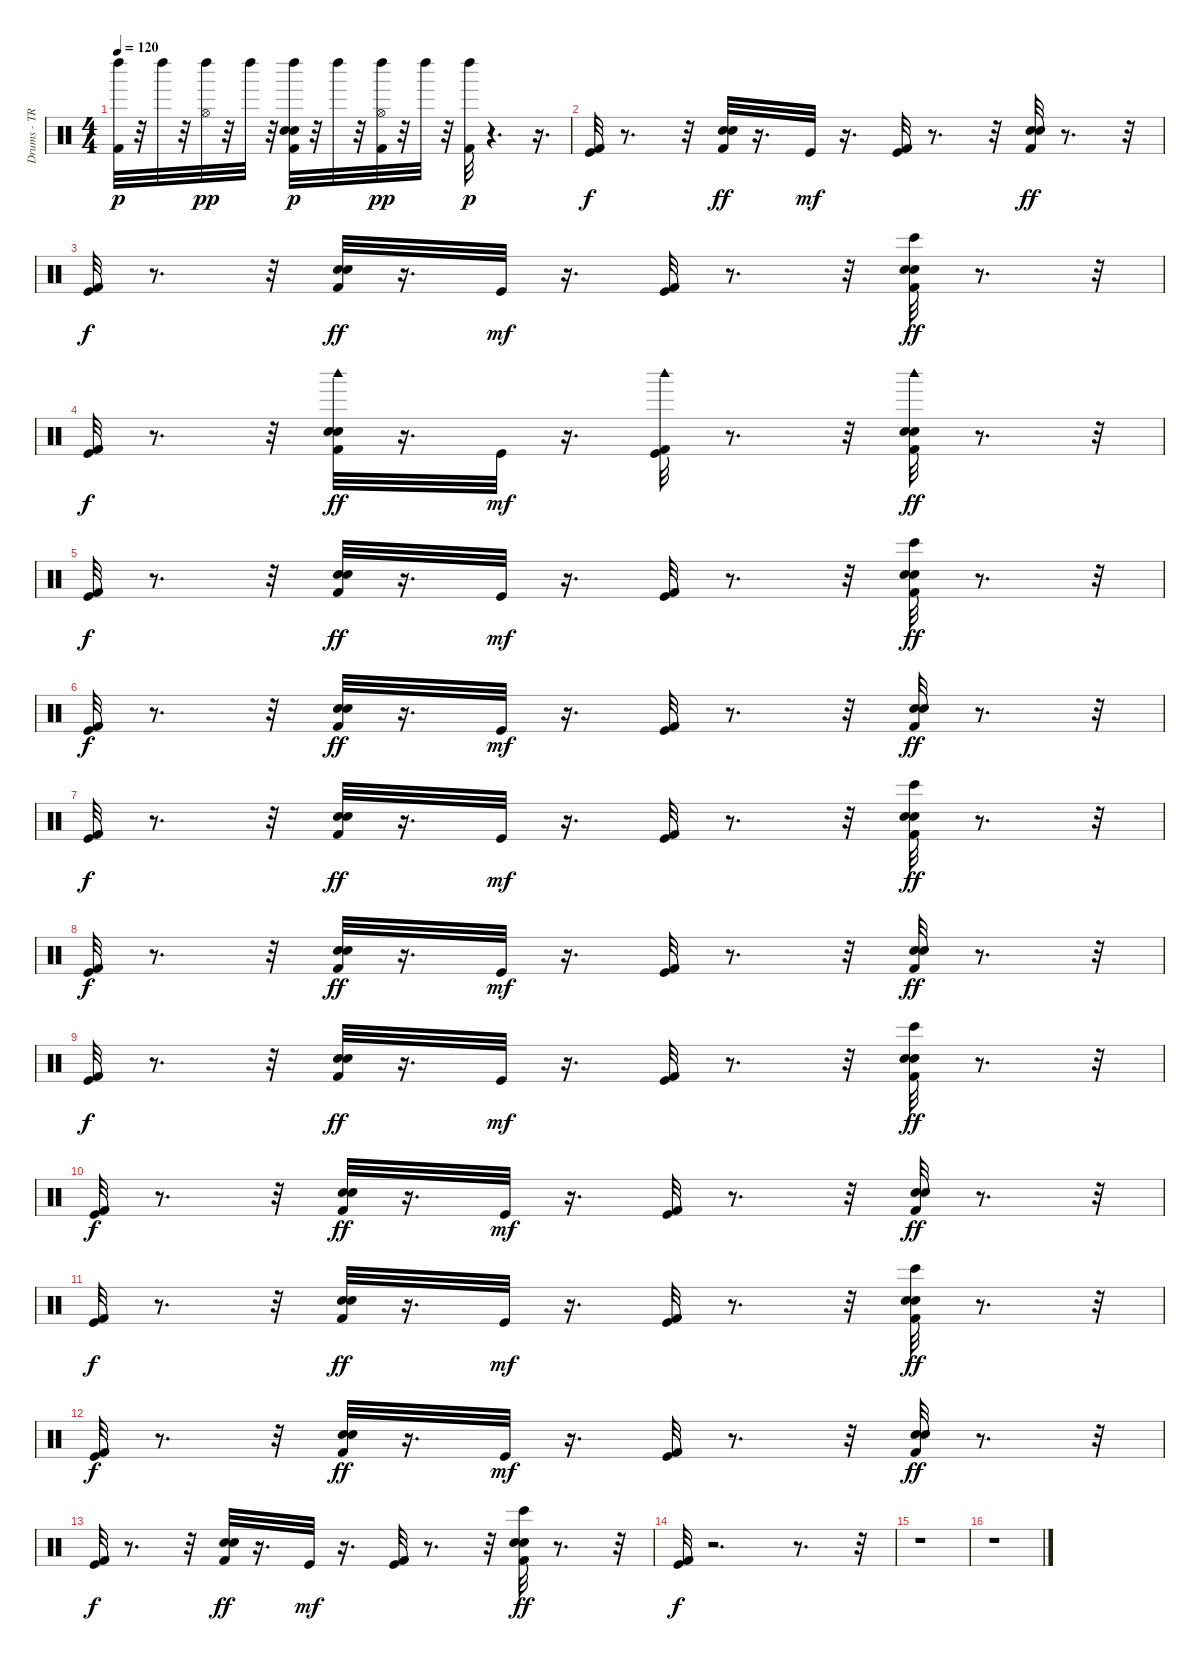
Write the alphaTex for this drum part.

\track ("Drums - TR" "Drums - TR") {instrument percussion}
\staff {score}
\articulation defaults
\ts (4 4)
\tempo 120
\clef neutral
\ks c
("Kick (hit) 2" "Left Maraca (hit)").32{dy p} r.32 "Left Maraca (hit)".32 r.32 ("Hi-Hat (open)" "Left Maraca (hit)").32{dy pp} r.32 "Left Maraca (hit)".32 r.32 ("Kick (hit) 2" "Snare (hit) 2" "Hand Clap (hit)" "Left Maraca (hit)").32{dy p} r.32 "Left Maraca (hit)".32 r.32 ("Kick (hit) 2" "Hi-Hat (open)" "Left Maraca (hit)").32{dy pp} r.32 "Left Maraca (hit)".32 r.32 ("Kick (hit) 2" "Left Maraca (hit)").32{dy p} r.4{d} r.16{d} |
("Kick (hit)" "Kick (hit) 2").32{dy f} r.8{d} r.32 ("Kick (hit) 2" "Snare (hit) 2" "Hand Clap (hit)").32{dy ff} r.16{d} "Kick (hit)".32{dy mf} r.16{d} ("Kick (hit)" "Kick (hit) 2").32 r.8{d} r.32 ("Kick (hit) 2" "Snare (hit) 2" "Hand Clap (hit)").32{dy ff} r.8{d} r.32 |
("Kick (hit)" "Kick (hit) 2").32{dy f} r.8{d} r.32 ("Kick (hit) 2" "Snare (hit) 2" "Hand Clap (hit)").32{dy ff} r.16{d} "Kick (hit)".32{dy mf} r.16{d} ("Kick (hit)" "Kick (hit) 2").32 r.8{d} r.32 ("Kick (hit) 2" "Snare (hit) 2" "Hand Clap (hit)" "Bongo High (hit)").32{dy ff} r.8{d} r.32 |
("Kick (hit)" "Kick (hit) 2").32{dy f} r.8{d} r.32 ("Kick (hit) 2" "Snare (hit) 2" "Hand Clap (hit)" "Woodblock high (hit)").32{dy ff} r.16{d} "Kick (hit)".32{dy mf} r.16{d} ("Kick (hit)" "Kick (hit) 2" "Woodblock high (hit)").32 r.8{d} r.32 ("Kick (hit) 2" "Snare (hit) 2" "Hand Clap (hit)" "Woodblock high (hit)").32{dy ff} r.8{d} r.32 |
("Kick (hit)" "Kick (hit) 2").32{dy f} r.8{d} r.32 ("Kick (hit) 2" "Snare (hit) 2" "Hand Clap (hit)").32{dy ff} r.16{d} "Kick (hit)".32{dy mf} r.16{d} ("Kick (hit)" "Kick (hit) 2").32 r.8{d} r.32 ("Kick (hit) 2" "Snare (hit) 2" "Hand Clap (hit)" "Bongo High (hit)").32{dy ff} r.8{d} r.32 |
("Kick (hit)" "Kick (hit) 2").32{dy f} r.8{d} r.32 ("Kick (hit) 2" "Snare (hit) 2" "Hand Clap (hit)").32{dy ff} r.16{d} "Kick (hit)".32{dy mf} r.16{d} ("Kick (hit)" "Kick (hit) 2").32 r.8{d} r.32 ("Kick (hit) 2" "Snare (hit) 2" "Hand Clap (hit)").32{dy ff} r.8{d} r.32 |
("Kick (hit)" "Kick (hit) 2").32{dy f} r.8{d} r.32 ("Kick (hit) 2" "Snare (hit) 2" "Hand Clap (hit)").32{dy ff} r.16{d} "Kick (hit)".32{dy mf} r.16{d} ("Kick (hit)" "Kick (hit) 2").32 r.8{d} r.32 ("Kick (hit) 2" "Snare (hit) 2" "Hand Clap (hit)" "Bongo High (hit)").32{dy ff} r.8{d} r.32 |
("Kick (hit)" "Kick (hit) 2").32{dy f} r.8{d} r.32 ("Kick (hit) 2" "Snare (hit) 2" "Hand Clap (hit)").32{dy ff} r.16{d} "Kick (hit)".32{dy mf} r.16{d} ("Kick (hit)" "Kick (hit) 2").32 r.8{d} r.32 ("Kick (hit) 2" "Snare (hit) 2" "Hand Clap (hit)").32{dy ff} r.8{d} r.32 |
("Kick (hit)" "Kick (hit) 2").32{dy f} r.8{d} r.32 ("Kick (hit) 2" "Snare (hit) 2" "Hand Clap (hit)").32{dy ff} r.16{d} "Kick (hit)".32{dy mf} r.16{d} ("Kick (hit)" "Kick (hit) 2").32 r.8{d} r.32 ("Kick (hit) 2" "Snare (hit) 2" "Hand Clap (hit)" "Bongo High (hit)").32{dy ff} r.8{d} r.32 |
("Kick (hit)" "Kick (hit) 2").32{dy f} r.8{d} r.32 ("Kick (hit) 2" "Snare (hit) 2" "Hand Clap (hit)").32{dy ff} r.16{d} "Kick (hit)".32{dy mf} r.16{d} ("Kick (hit)" "Kick (hit) 2").32 r.8{d} r.32 ("Kick (hit) 2" "Snare (hit) 2" "Hand Clap (hit)").32{dy ff} r.8{d} r.32 |
("Kick (hit)" "Kick (hit) 2").32{dy f} r.8{d} r.32 ("Kick (hit) 2" "Snare (hit) 2" "Hand Clap (hit)").32{dy ff} r.16{d} "Kick (hit)".32{dy mf} r.16{d} ("Kick (hit)" "Kick (hit) 2").32 r.8{d} r.32 ("Kick (hit) 2" "Snare (hit) 2" "Hand Clap (hit)" "Bongo High (hit)").32{dy ff} r.8{d} r.32 |
("Kick (hit)" "Kick (hit) 2").32{dy f} r.8{d} r.32 ("Kick (hit) 2" "Snare (hit) 2" "Hand Clap (hit)").32{dy ff} r.16{d} "Kick (hit)".32{dy mf} r.16{d} ("Kick (hit)" "Kick (hit) 2").32 r.8{d} r.32 ("Kick (hit) 2" "Snare (hit) 2" "Hand Clap (hit)").32{dy ff} r.8{d} r.32 |
("Kick (hit)" "Kick (hit) 2").32{dy f} r.8{d} r.32 ("Kick (hit) 2" "Snare (hit) 2" "Hand Clap (hit)").32{dy ff} r.16{d} "Kick (hit)".32{dy mf} r.16{d} ("Kick (hit)" "Kick (hit) 2").32 r.8{d} r.32 ("Kick (hit) 2" "Snare (hit) 2" "Hand Clap (hit)" "Bongo High (hit)").32{dy ff} r.8{d} r.32 |
("Kick (hit)" "Kick (hit) 2").32{dy f} r.2{d} r.8{d} r.32 |
r.1 |
r.1
